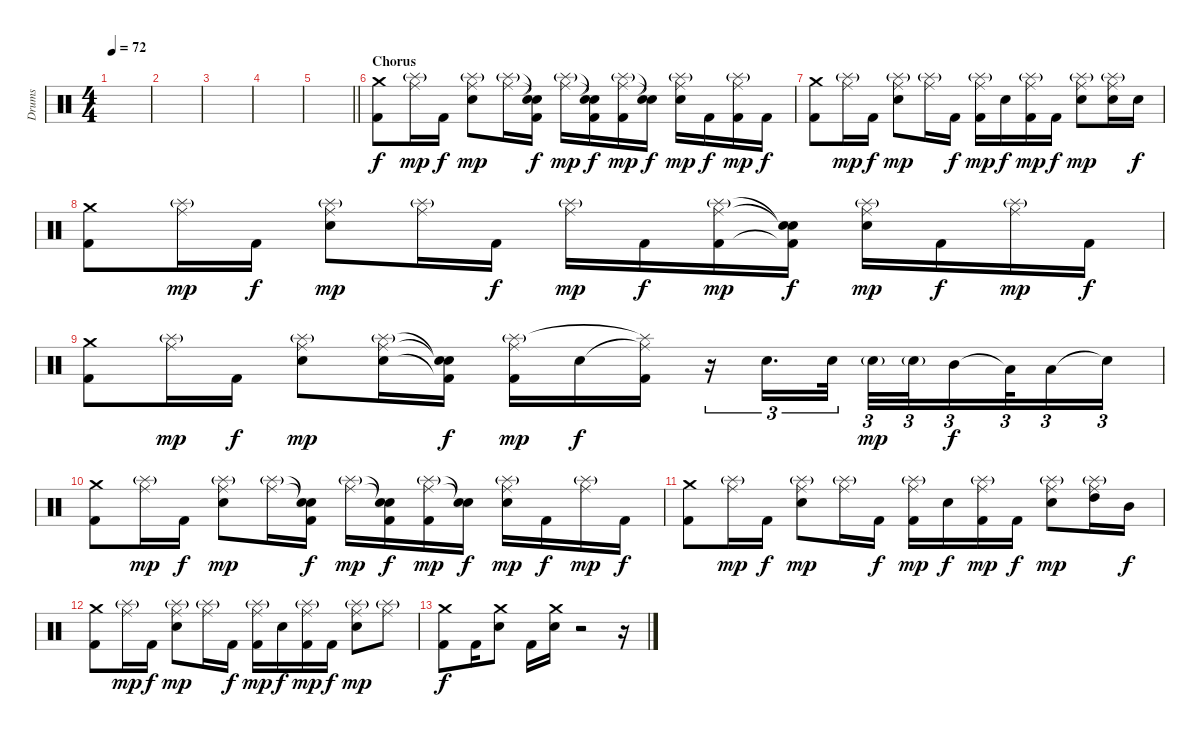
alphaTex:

\track ("Drums" "Drums") {instrument percussion}
\staff {score}
\articulation defaults
\ts (4 4)
\tempo 72
\clef neutral
\ks c
|
|
|
|
\barLineRight lightlight
|
\section ("" "Chorus")
("Crash medium (hit)" "Kick (hit) 2").8 ("Ride (middle)" "Splash (hit)"{g}).16{dy mp} "Kick (hit) 2".16{dy f} ("Ride (middle)" "Splash (hit)"{g} "Electric Snare (hit)").8{dy mp} ("Ride (middle)" "Splash (hit)"{g}).16 ("Snare (hit)"{t} "Snare (hit)"{t} "Kick (hit) 2").16{dy f} ("Ride (middle)" "Splash (hit)"{g}).16{dy mp} ("Snare (hit)"{t} "Snare (hit)"{t} "Kick (hit) 2").16{dy f} ("Ride (middle)" "Splash (hit)"{g} "Kick (hit) 2").16{dy mp} ("Snare (hit)"{t} "Snare (hit)"{t}).16{dy f} ("Ride (middle)" "Splash (hit)"{g} "Electric Snare (hit)").16{dy mp} "Kick (hit) 2".16{dy f} ("Ride (middle)" "Splash (hit)"{g} "Kick (hit) 2").16{dy mp} "Kick (hit) 2".16{dy f} |
("Crash medium (hit)" "Kick (hit) 2").8 ("Ride (middle)" "Splash (hit)"{g}).16{dy mp} "Kick (hit) 2".16{dy f} ("Ride (middle)" "Splash (hit)"{g} "Electric Snare (hit)").8{dy mp} ("Ride (middle)" "Splash (hit)"{g}).16 "Kick (hit) 2".16{dy f} ("Ride (middle)" "Splash (hit)"{g} "Kick (hit) 2").16{dy mp} "Electric Snare (hit)".16{dy f} ("Ride (middle)" "Splash (hit)"{g} "Kick (hit) 2").16{dy mp} "Kick (hit) 2".16{dy f} ("Ride (middle)" "Splash (hit)"{g} "Electric Snare (hit)").8{dy mp} ("Ride (middle)" "Splash (hit)"{g} "Electric Snare (hit)").16 "Electric Snare (hit)".16{dy f} |
("Crash medium (hit)" "Kick (hit) 2").8 ("Ride (middle)" "Splash (hit)"{g}).16{dy mp} "Kick (hit) 2".16{dy f} ("Ride (middle)" "Splash (hit)"{g} "Electric Snare (hit)").8{dy mp} ("Ride (middle)" "Splash (hit)"{g}).16 "Kick (hit) 2".16{dy f} ("Ride (middle)" "Splash (hit)"{g}).16{dy mp} "Kick (hit) 2".16{dy f} ("Ride (middle)" "Splash (hit)"{g} "Kick (hit) 2").16{dy mp} ("Snare (hit)"{t} "Snare (hit)"{t} "Kick (hit) 2"{t}).16{dy f} ("Ride (middle)" "Splash (hit)"{g} "Electric Snare (hit)").16{dy mp} "Kick (hit) 2".16{dy f} ("Ride (middle)" "Splash (hit)"{g}).16{dy mp} "Kick (hit) 2".16{dy f} |
("Crash medium (hit)" "Kick (hit) 2").8 ("Ride (middle)" "Splash (hit)"{g}).16{dy mp} "Kick (hit) 2".16{dy f} ("Ride (middle)" "Splash (hit)"{g} "Electric Snare (hit)").8{dy mp} ("Ride (middle)" "Splash (hit)"{g} "Electric Snare (hit)").16 ("Snare (hit)"{t} "Snare (hit)"{t} "Kick (hit) 2"{t}).16{dy f} ("Ride (middle)" "Splash (hit)"{g} "Kick (hit) 2").16{dy mp} "Electric Snare (hit)".16{dy f} ("Ride (middle)"{t} "Splash (hit)"{t} "Kick (hit) 2").16 r.16{tu (3 2)} "Electric Snare (hit)".16{d tu (3 2)} "Electric Snare (hit)".32{tu (3 2)} "Electric Snare (hit)"{g}.32{tu (3 2) dy mp} "Electric Snare (hit)"{g}.32{tu (3 2) beam splitsecondary} "Mid Tom (hit)".16{tu (3 2) dy f} "Low Tom (hit)"{t}.32{tu (3 2) beam splitsecondary} "Low Tom (hit)".16{tu (3 2)} "Electric Snare (hit)"{t}.16{tu (3 2)} |
("Crash medium (hit)" "Kick (hit) 2").8 ("Ride (middle)" "Splash (hit)"{g}).16{dy mp} "Kick (hit) 2".16{dy f} ("Ride (middle)" "Splash (hit)"{g} "Electric Snare (hit)").8{dy mp} ("Ride (middle)" "Splash (hit)"{g}).16 ("Snare (hit)"{t} "Snare (hit)"{t} "Kick (hit) 2").16{dy f} ("Ride (middle)" "Splash (hit)"{g}).16{dy mp} ("Snare (hit)"{t} "Snare (hit)"{t} "Kick (hit) 2").16{dy f} ("Ride (middle)" "Splash (hit)"{g} "Kick (hit) 2").16{dy mp} ("Snare (hit)"{t} "Snare (hit)"{t}).16{dy f} ("Ride (middle)" "Splash (hit)"{g} "Electric Snare (hit)").16{dy mp} "Kick (hit) 2".16{dy f} ("Ride (middle)" "Splash (hit)"{g}).16{dy mp} "Kick (hit) 2".16{dy f} |
("Crash medium (hit)" "Kick (hit) 2").8 ("Ride (middle)" "Splash (hit)"{g}).16{dy mp} "Kick (hit) 2".16{dy f} ("Ride (middle)" "Splash (hit)"{g} "Electric Snare (hit)").8{dy mp} ("Ride (middle)" "Splash (hit)"{g}).16 "Kick (hit) 2".16{dy f} ("Ride (middle)" "Splash (hit)"{g} "Kick (hit) 2").16{dy mp} "Electric Snare (hit)".16{dy f} ("Ride (middle)" "Splash (hit)"{g} "Kick (hit) 2").16{dy mp} "Kick (hit) 2".16{dy f} ("Ride (middle)" "Splash (hit)"{g} "Electric Snare (hit)").8{dy mp} ("Ride (middle)" "Splash (hit)"{g} "High Tom (hit)").16 "Mid Tom (hit)".16{dy f} |
("Crash medium (hit)" "Kick (hit) 2").8 ("Ride (middle)" "Splash (hit)"{g}).16{dy mp} "Kick (hit) 2".16{dy f} ("Ride (middle)" "Splash (hit)"{g} "Electric Snare (hit)").8{dy mp} ("Ride (middle)" "Splash (hit)"{g}).16 "Kick (hit) 2".16{dy f} ("Ride (middle)" "Splash (hit)"{g} "Kick (hit) 2").16{dy mp} "Electric Snare (hit)".16{dy f} ("Ride (middle)" "Splash (hit)"{g} "Kick (hit) 2").16{dy mp} "Kick (hit) 2".16{dy f} ("Ride (middle)" "Splash (hit)"{g} "Electric Snare (hit)").8{dy mp} ("Ride (middle)" "Splash (hit)"{g}).8 |
("Crash medium (hit)" "Kick (hit) 2").8{dy f} "Kick (hit) 2".16 ("Crash medium (hit)" "Electric Snare (hit)").8 "Kick (hit) 2".16 ("Crash medium (hit)" "Electric Snare (hit)").16 r.2 r.16
